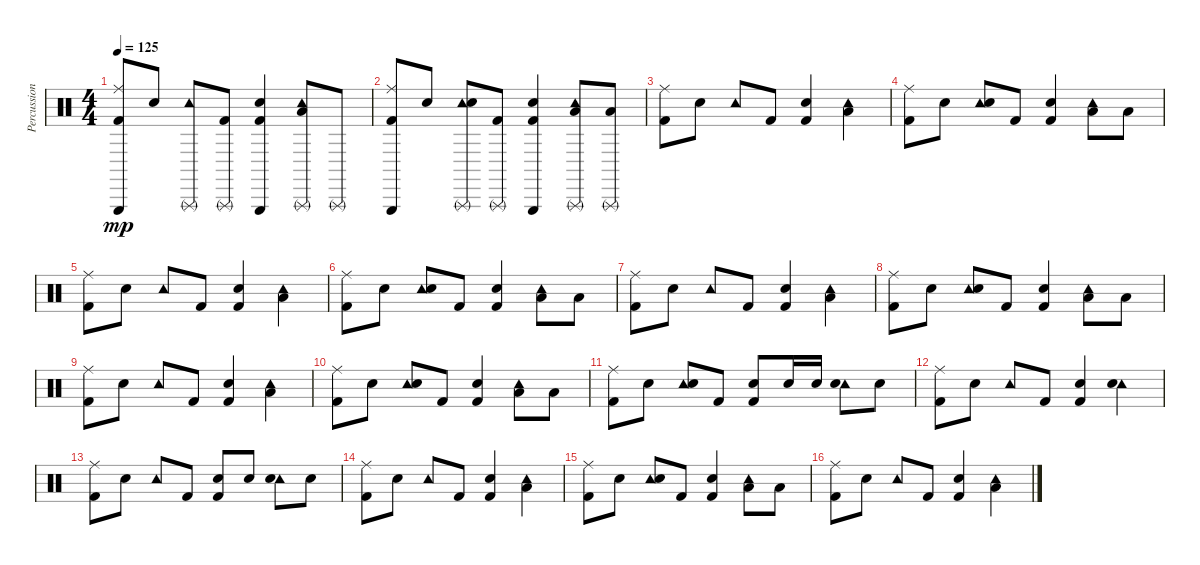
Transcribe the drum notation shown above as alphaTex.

\track ("Percussion" "Percussion") {instrument percussion}
\staff {score}
\articulation defaults
\ts (4 4)
\tempo 125
\clef neutral
\ks c
("Triangle (hit)" "Ride (middle)" "Kick (hit) 2").8{dy mp} "Snare (hit) 2".8 ("Triangle (rnute)" "Tambourine (hit)").8 ("Triangle (rnute)" "Kick (hit) 2").8 ("Triangle (hit)" "Kick (hit) 2" "Snare (hit) 2").4 ("Tambourine (hit)" "Low Tom (hit)" "Triangle (rnute)").8 "Triangle (rnute)".8 |
("Triangle (hit)" "Ride (middle)" "Kick (hit) 2").8 "Snare (hit) 2".8 ("Triangle (rnute)" "Tambourine (hit)" "Snare (hit) 2").8 ("Triangle (rnute)" "Kick (hit) 2").8 ("Triangle (hit)" "Kick (hit) 2" "Snare (hit) 2").4 ("Tambourine (hit)" "Triangle (rnute)" "Low Tom (hit)").8 ("Low Tom (hit)" "Triangle (rnute)").8 |
("Ride (middle)" "Kick (hit) 2").8 "Snare (hit) 2".8 "Tambourine (hit)".8 "Kick (hit) 2".8 ("Kick (hit) 2" "Snare (hit) 2").4 ("Tambourine (hit)" "Low Tom (hit)").4 |
("Ride (middle)" "Kick (hit) 2").8 "Snare (hit) 2".8 ("Tambourine (hit)" "Snare (hit) 2").8 "Kick (hit) 2".8 ("Kick (hit) 2" "Snare (hit) 2").4 ("Tambourine (hit)" "Low Tom (hit)").8 "Low Tom (hit)".8 |
("Ride (middle)" "Kick (hit) 2").8 "Snare (hit) 2".8 "Tambourine (hit)".8 "Kick (hit) 2".8 ("Kick (hit) 2" "Snare (hit) 2").4 ("Tambourine (hit)" "Low Tom (hit)").4 |
("Ride (middle)" "Kick (hit) 2").8 "Snare (hit) 2".8 ("Tambourine (hit)" "Snare (hit) 2").8 "Kick (hit) 2".8 ("Kick (hit) 2" "Snare (hit) 2").4 ("Tambourine (hit)" "Low Tom (hit)").8 "Low Tom (hit)".8 |
("Ride (middle)" "Kick (hit) 2").8 "Snare (hit) 2".8 "Tambourine (hit)".8 "Kick (hit) 2".8 ("Kick (hit) 2" "Snare (hit) 2").4 ("Tambourine (hit)" "Low Tom (hit)").4 |
("Ride (middle)" "Kick (hit) 2").8 "Snare (hit) 2".8 ("Tambourine (hit)" "Snare (hit) 2").8 "Kick (hit) 2".8 ("Kick (hit) 2" "Snare (hit) 2").4 ("Tambourine (hit)" "Low Tom (hit)").8 "Low Tom (hit)".8 |
("Ride (middle)" "Kick (hit) 2").8 "Snare (hit) 2".8 "Tambourine (hit)".8 "Kick (hit) 2".8 ("Kick (hit) 2" "Snare (hit) 2").4 ("Tambourine (hit)" "Low Tom (hit)").4 |
("Ride (middle)" "Kick (hit) 2").8 "Snare (hit) 2".8 ("Tambourine (hit)" "Snare (hit) 2").8 "Kick (hit) 2".8 ("Kick (hit) 2" "Snare (hit) 2").4 ("Tambourine (hit)" "Low Tom (hit)").8 "Low Tom (hit)".8 |
("Ride (middle)" "Kick (hit) 2").8 "Snare (hit) 2".8 ("Tambourine (hit)" "Snare (hit) 2").8 "Kick (hit) 2".8 ("Kick (hit) 2" "Snare (hit) 2").8 "Snare (hit) 2".16 "Snare (hit) 2".16 ("Tambourine (hit)" "Snare (hit) 2").8 "Snare (hit) 2".8 |
("Ride (middle)" "Kick (hit) 2").8 "Snare (hit) 2".8 "Tambourine (hit)".8 "Kick (hit) 2".8 ("Kick (hit) 2" "Snare (hit) 2").4 ("Tambourine (hit)" "Snare (hit) 2").4 |
("Ride (middle)" "Kick (hit) 2").8 "Snare (hit) 2".8 "Tambourine (hit)".8 "Kick (hit) 2".8 ("Kick (hit) 2" "Snare (hit) 2").8 "Snare (hit) 2".8 ("Tambourine (hit)" "Snare (hit) 2").8 "Snare (hit) 2".8 |
("Ride (middle)" "Kick (hit) 2").8 "Snare (hit) 2".8 "Tambourine (hit)".8 "Kick (hit) 2".8 ("Kick (hit) 2" "Snare (hit) 2").4 ("Tambourine (hit)" "Low Tom (hit)").4 |
("Ride (middle)" "Kick (hit) 2").8 "Snare (hit) 2".8 ("Tambourine (hit)" "Snare (hit) 2").8 "Kick (hit) 2".8 ("Kick (hit) 2" "Snare (hit) 2").4 ("Tambourine (hit)" "Low Tom (hit)").8 "Low Tom (hit)".8 |
("Ride (middle)" "Kick (hit) 2").8 "Snare (hit) 2".8 "Tambourine (hit)".8 "Kick (hit) 2".8 ("Kick (hit) 2" "Snare (hit) 2").4 ("Tambourine (hit)" "Low Tom (hit)").4
